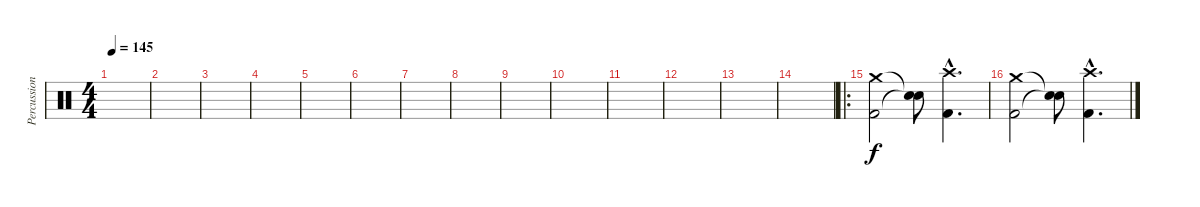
\track ("Percussion" "Percussion") {instrument percussion}
\staff {score}
\articulation defaults
\ts (4 4)
\tempo 145
\clef neutral
\ks c
|
|
|
|
|
|
|
|
|
|
|
|
|
|
\ro
("Crash medium (hit)" "Kick (hit) 2").2 ("Snare (hit)"{t} "Snare (hit)"{t}).8 ("Crash high (hit)"{hac} "Kick (hit) 2"{hac}).4{d} |
("Crash medium (hit)" "Kick (hit) 2").2 ("Snare (hit)"{t} "Snare (hit)"{t}).8 ("Crash high (hit)"{hac} "Kick (hit) 2"{hac}).4{d}
